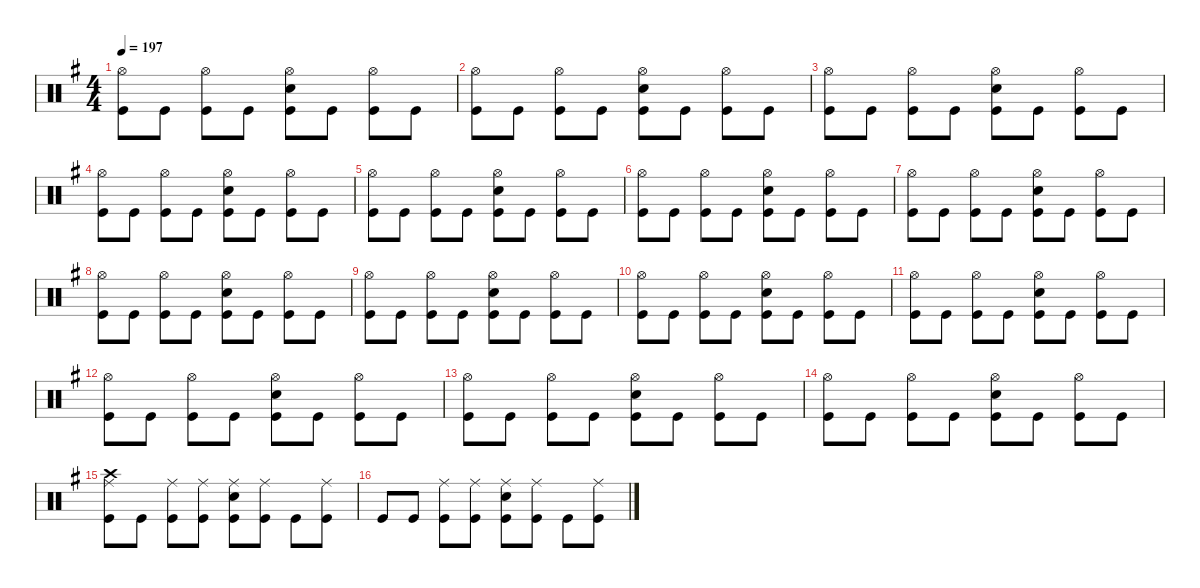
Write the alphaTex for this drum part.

\defaultSystemsLayout 4
\hideDynamics
\bracketExtendMode nobrackets
\singleTrackTrackNamePolicy hidden
\multiTrackTrackNamePolicy hidden
\firstSystemTrackNameMode fullname
\firstSystemTrackNameOrientation horizontal
\otherSystemsTrackNameOrientation horizontal
\track ("Drums" "drm.") {defaultSystemsLayout 4 instrument percussion}
\staff {score}
\articulation defaults
\ts (4 4)
\tempo 197
\clef neutral
\ks eminor
("Hi-Hat (open)"{acc forcenatural} "Kick (hit)"{acc forcenatural}).8{dy f beam Down} "Kick (hit)"{acc forcenatural}.8{beam Down} ("Hi-Hat (open)"{acc forcenatural} "Kick (hit)"{acc forcenatural}).8{beam Down} "Kick (hit)"{acc forcenatural}.8{beam Down} ("Hi-Hat (open)"{acc forcenatural} "Snare (hit) 2"{acc forcenatural} "Kick (hit)"{acc forcenatural}).8{beam Down} "Kick (hit)"{acc forcenatural}.8{beam Down} ("Hi-Hat (open)"{acc forcenatural} "Kick (hit)"{acc forcenatural}).8{beam Down} "Kick (hit)"{acc forcenatural}.8{beam Down} |
("Hi-Hat (open)"{acc forcenatural} "Kick (hit)"{acc forcenatural}).8{beam Down} "Kick (hit)"{acc forcenatural}.8{beam Down} ("Hi-Hat (open)"{acc forcenatural} "Kick (hit)"{acc forcenatural}).8{beam Down} "Kick (hit)"{acc forcenatural}.8{beam Down} ("Hi-Hat (open)"{acc forcenatural} "Snare (hit) 2"{acc forcenatural} "Kick (hit)"{acc forcenatural}).8{beam Down} "Kick (hit)"{acc forcenatural}.8{beam Down} ("Hi-Hat (open)"{acc forcenatural} "Kick (hit)"{acc forcenatural}).8{beam Down} "Kick (hit)"{acc forcenatural}.8{beam Down} |
("Hi-Hat (open)"{acc forcenatural} "Kick (hit)"{acc forcenatural}).8{beam Down} "Kick (hit)"{acc forcenatural}.8{beam Down} ("Hi-Hat (open)"{acc forcenatural} "Kick (hit)"{acc forcenatural}).8{beam Down} "Kick (hit)"{acc forcenatural}.8{beam Down} ("Hi-Hat (open)"{acc forcenatural} "Snare (hit) 2"{acc forcenatural} "Kick (hit)"{acc forcenatural}).8{beam Down} "Kick (hit)"{acc forcenatural}.8{beam Down} ("Hi-Hat (open)"{acc forcenatural} "Kick (hit)"{acc forcenatural}).8{beam Down} "Kick (hit)"{acc forcenatural}.8{beam Down} |
("Hi-Hat (open)"{acc forcenatural} "Kick (hit)"{acc forcenatural}).8{beam Down} "Kick (hit)"{acc forcenatural}.8{beam Down} ("Hi-Hat (open)"{acc forcenatural} "Kick (hit)"{acc forcenatural}).8{beam Down} "Kick (hit)"{acc forcenatural}.8{beam Down} ("Hi-Hat (open)"{acc forcenatural} "Snare (hit) 2"{acc forcenatural} "Kick (hit)"{acc forcenatural}).8{beam Down} "Kick (hit)"{acc forcenatural}.8{beam Down} ("Hi-Hat (open)"{acc forcenatural} "Kick (hit)"{acc forcenatural}).8{beam Down} "Kick (hit)"{acc forcenatural}.8{beam Down} |
("Hi-Hat (open)"{acc forcenatural} "Kick (hit)"{acc forcenatural}).8{beam Down} "Kick (hit)"{acc forcenatural}.8{beam Down} ("Hi-Hat (open)"{acc forcenatural} "Kick (hit)"{acc forcenatural}).8{beam Down} "Kick (hit)"{acc forcenatural}.8{beam Down} ("Hi-Hat (open)"{acc forcenatural} "Snare (hit) 2"{acc forcenatural} "Kick (hit)"{acc forcenatural}).8{beam Down} "Kick (hit)"{acc forcenatural}.8{beam Down} ("Hi-Hat (open)"{acc forcenatural} "Kick (hit)"{acc forcenatural}).8{beam Down} "Kick (hit)"{acc forcenatural}.8{beam Down} |
("Hi-Hat (open)"{acc forcenatural} "Kick (hit)"{acc forcenatural}).8{beam Down} "Kick (hit)"{acc forcenatural}.8{beam Down} ("Hi-Hat (open)"{acc forcenatural} "Kick (hit)"{acc forcenatural}).8{beam Down} "Kick (hit)"{acc forcenatural}.8{beam Down} ("Hi-Hat (open)"{acc forcenatural} "Snare (hit) 2"{acc forcenatural} "Kick (hit)"{acc forcenatural}).8{beam Down} "Kick (hit)"{acc forcenatural}.8{beam Down} ("Hi-Hat (open)"{acc forcenatural} "Kick (hit)"{acc forcenatural}).8{beam Down} "Kick (hit)"{acc forcenatural}.8{beam Down} |
("Hi-Hat (open)"{acc forcenatural} "Kick (hit)"{acc forcenatural}).8{beam Down} "Kick (hit)"{acc forcenatural}.8{beam Down} ("Hi-Hat (open)"{acc forcenatural} "Kick (hit)"{acc forcenatural}).8{beam Down} "Kick (hit)"{acc forcenatural}.8{beam Down} ("Hi-Hat (open)"{acc forcenatural} "Snare (hit) 2"{acc forcenatural} "Kick (hit)"{acc forcenatural}).8{beam Down} "Kick (hit)"{acc forcenatural}.8{beam Down} ("Hi-Hat (open)"{acc forcenatural} "Kick (hit)"{acc forcenatural}).8{beam Down} "Kick (hit)"{acc forcenatural}.8{beam Down} |
("Hi-Hat (open)"{acc forcenatural} "Kick (hit)"{acc forcenatural}).8{beam Down} "Kick (hit)"{acc forcenatural}.8{beam Down} ("Hi-Hat (open)"{acc forcenatural} "Kick (hit)"{acc forcenatural}).8{beam Down} "Kick (hit)"{acc forcenatural}.8{beam Down} ("Hi-Hat (open)"{acc forcenatural} "Snare (hit) 2"{acc forcenatural} "Kick (hit)"{acc forcenatural}).8{beam Down} "Kick (hit)"{acc forcenatural}.8{beam Down} ("Hi-Hat (open)"{acc forcenatural} "Kick (hit)"{acc forcenatural}).8{beam Down} "Kick (hit)"{acc forcenatural}.8{beam Down} |
("Hi-Hat (open)"{acc forcenatural} "Kick (hit)"{acc forcenatural}).8{beam Down} "Kick (hit)"{acc forcenatural}.8{beam Down} ("Hi-Hat (open)"{acc forcenatural} "Kick (hit)"{acc forcenatural}).8{beam Down} "Kick (hit)"{acc forcenatural}.8{beam Down} ("Hi-Hat (open)"{acc forcenatural} "Snare (hit) 2"{acc forcenatural} "Kick (hit)"{acc forcenatural}).8{beam Down} "Kick (hit)"{acc forcenatural}.8{beam Down} ("Hi-Hat (open)"{acc forcenatural} "Kick (hit)"{acc forcenatural}).8{beam Down} "Kick (hit)"{acc forcenatural}.8{beam Down} |
("Hi-Hat (open)"{acc forcenatural} "Kick (hit)"{acc forcenatural}).8{beam Down} "Kick (hit)"{acc forcenatural}.8{beam Down} ("Hi-Hat (open)"{acc forcenatural} "Kick (hit)"{acc forcenatural}).8{beam Down} "Kick (hit)"{acc forcenatural}.8{beam Down} ("Hi-Hat (open)"{acc forcenatural} "Snare (hit) 2"{acc forcenatural} "Kick (hit)"{acc forcenatural}).8{beam Down} "Kick (hit)"{acc forcenatural}.8{beam Down} ("Hi-Hat (open)"{acc forcenatural} "Kick (hit)"{acc forcenatural}).8{beam Down} "Kick (hit)"{acc forcenatural}.8{beam Down} |
("Hi-Hat (open)"{acc forcenatural} "Kick (hit)"{acc forcenatural}).8{beam Down} "Kick (hit)"{acc forcenatural}.8{beam Down} ("Hi-Hat (open)"{acc forcenatural} "Kick (hit)"{acc forcenatural}).8{beam Down} "Kick (hit)"{acc forcenatural}.8{beam Down} ("Hi-Hat (open)"{acc forcenatural} "Snare (hit) 2"{acc forcenatural} "Kick (hit)"{acc forcenatural}).8{beam Down} "Kick (hit)"{acc forcenatural}.8{beam Down} ("Hi-Hat (open)"{acc forcenatural} "Kick (hit)"{acc forcenatural}).8{beam Down} "Kick (hit)"{acc forcenatural}.8{beam Down} |
("Hi-Hat (open)"{acc forcenatural} "Kick (hit)"{acc forcenatural}).8{beam Down} "Kick (hit)"{acc forcenatural}.8{beam Down} ("Hi-Hat (open)"{acc forcenatural} "Kick (hit)"{acc forcenatural}).8{beam Down} "Kick (hit)"{acc forcenatural}.8{beam Down} ("Hi-Hat (open)"{acc forcenatural} "Snare (hit) 2"{acc forcenatural} "Kick (hit)"{acc forcenatural}).8{beam Down} "Kick (hit)"{acc forcenatural}.8{beam Down} ("Hi-Hat (open)"{acc forcenatural} "Kick (hit)"{acc forcenatural}).8{beam Down} "Kick (hit)"{acc forcenatural}.8{beam Down} |
("Hi-Hat (open)"{acc forcenatural} "Kick (hit)"{acc forcenatural}).8{beam Down} "Kick (hit)"{acc forcenatural}.8{beam Down} ("Hi-Hat (open)"{acc forcenatural} "Kick (hit)"{acc forcenatural}).8{beam Down} "Kick (hit)"{acc forcenatural}.8{beam Down} ("Hi-Hat (open)"{acc forcenatural} "Snare (hit) 2"{acc forcenatural} "Kick (hit)"{acc forcenatural}).8{beam Down} "Kick (hit)"{acc forcenatural}.8{beam Down} ("Hi-Hat (open)"{acc forcenatural} "Kick (hit)"{acc forcenatural}).8{beam Down} "Kick (hit)"{acc forcenatural}.8{beam Down} |
("Hi-Hat (open)"{acc forcenatural} "Kick (hit)"{acc forcenatural}).8{beam Down} "Kick (hit)"{acc forcenatural}.8{beam Down} ("Hi-Hat (open)"{acc forcenatural} "Kick (hit)"{acc forcenatural}).8{beam Down} "Kick (hit)"{acc forcenatural}.8{beam Down} ("Hi-Hat (open)"{acc forcenatural} "Snare (hit) 2"{acc forcenatural} "Kick (hit)"{acc forcenatural}).8{beam Down} "Kick (hit)"{acc forcenatural}.8{beam Down} ("Hi-Hat (open)"{acc forcenatural} "Kick (hit)"{acc forcenatural}).8{beam Down} "Kick (hit)"{acc forcenatural}.8{beam Down} |
("Crash high (hit)"{acc forcenatural} "Ride (middle)"{acc forcenatural} "Kick (hit)"{acc forcenatural}).8{beam Down} "Kick (hit)"{acc forcenatural}.8{beam Down} ("Ride (middle)"{acc forcenatural} "Kick (hit)"{acc forcenatural}).8{beam Down} ("Ride (middle)"{acc forcenatural} "Kick (hit)"{acc forcenatural}).8{beam Down} ("Ride (middle)"{acc forcenatural} "Snare (hit) 2"{acc forcenatural} "Kick (hit)"{acc forcenatural}).8{beam Down} ("Ride (middle)"{acc forcenatural} "Kick (hit)"{acc forcenatural}).8{beam Down} "Kick (hit)"{acc forcenatural}.8{beam Down} ("Ride (middle)"{acc forcenatural} "Kick (hit)"{acc forcenatural}).8{beam Down} |
"Kick (hit)"{acc forcenatural}.8{beam Up} "Kick (hit)"{acc forcenatural}.8{beam Up} ("Ride (middle)"{acc forcenatural} "Kick (hit)"{acc forcenatural}).8{beam Down} ("Ride (middle)"{acc forcenatural} "Kick (hit)"{acc forcenatural}).8{beam Down} ("Ride (middle)"{acc forcenatural} "Snare (hit) 2"{acc forcenatural} "Kick (hit)"{acc forcenatural}).8{beam Down} ("Ride (middle)"{acc forcenatural} "Kick (hit)"{acc forcenatural}).8{beam Down} "Kick (hit)"{acc forcenatural}.8{beam Down} ("Ride (middle)"{acc forcenatural} "Kick (hit)"{acc forcenatural}).8{beam Down}
